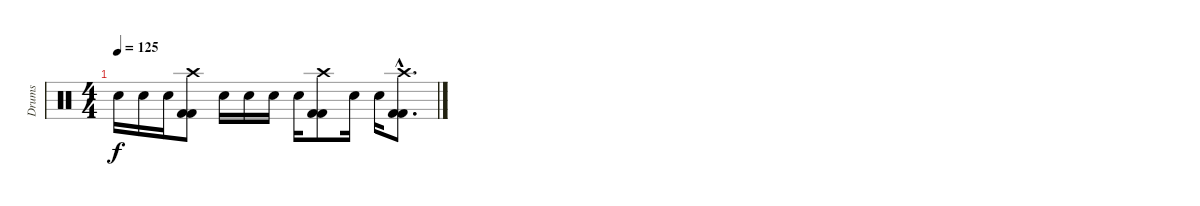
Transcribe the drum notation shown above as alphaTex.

\track ("Drums" "Drums") {instrument percussion}
\staff {score}
\articulation defaults
\ts (4 4)
\tempo 125
\clef neutral
\ks c "Snare (hit) 2".16{dy f} "Snare (hit) 2".16 "Snare (hit) 2".16
("Crash high (hit)" "Kick (hit) 2" "Kick (hit) 2").8 "Snare (hit) 2".16 "Snare (hit) 2".16 "Snare (hit) 2".16 "Snare (hit) 2".16 ("Crash high (hit)" "Kick (hit) 2" "Kick (hit) 2").8 "Snare (hit) 2".16 "Snare (hit) 2".16 ("Crash high (hit)"{hac} "Kick (hit) 2"{hac} "Kick (hit) 2"{hac}).8{d}
